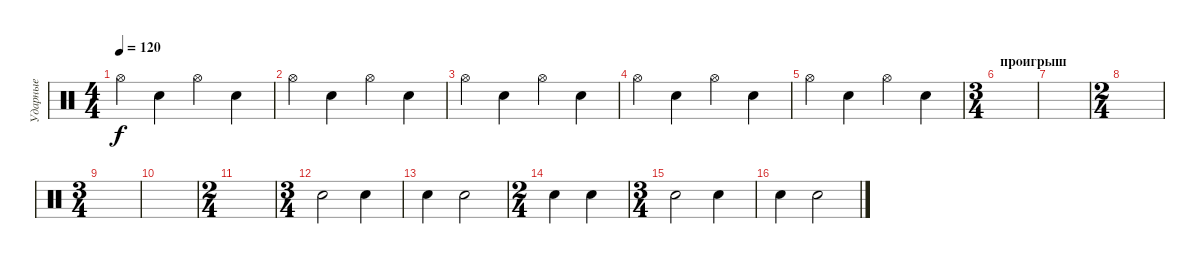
\track ("Ударные" "Ударные") {instrument percussion}
\staff {score}
\articulation defaults
\ts (4 4)
\tempo 120
\clef neutral
\ks c "Hi-Hat (open)".4{dy f} "Electric Snare (hit)".4 "Hi-Hat (open)".4 "Electric Snare (hit)".4
|
"Hi-Hat (open)".4 "Electric Snare (hit)".4 "Hi-Hat (open)".4 "Electric Snare (hit)".4 |
"Hi-Hat (open)".4 "Electric Snare (hit)".4 "Hi-Hat (open)".4 "Electric Snare (hit)".4 |
"Hi-Hat (open)".4 "Electric Snare (hit)".4 "Hi-Hat (open)".4 "Electric Snare (hit)".4 |
"Hi-Hat (open)".4 "Electric Snare (hit)".4 "Hi-Hat (open)".4 "Electric Snare (hit)".4 |
\ts (3 4)
\section ("" "проигрыш")
|
|
\ts (2 4)
|
\ts (3 4)
|
|
\ts (2 4)
|
\ts (3 4)
"Electric Snare (hit)".2 "Electric Snare (hit)".4 |
"Electric Snare (hit)".4 "Electric Snare (hit)".2 |
\ts (2 4)
"Electric Snare (hit)".4 "Electric Snare (hit)".4 |
\ts (3 4)
"Electric Snare (hit)".2 "Electric Snare (hit)".4 |
"Electric Snare (hit)".4 "Electric Snare (hit)".2
